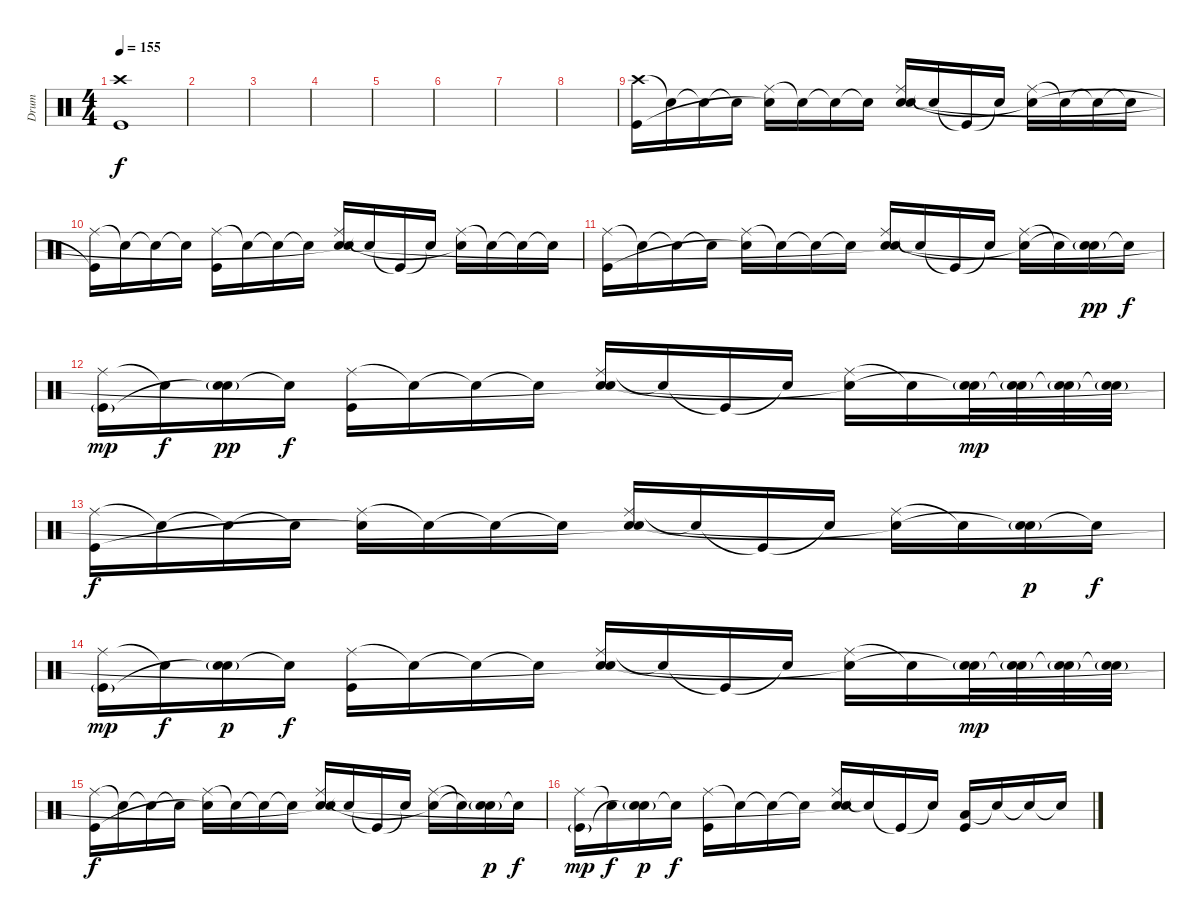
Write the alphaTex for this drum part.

\track ("Drum" "Drum") {instrument percussion}
\staff {score}
\articulation defaults
\ts (4 4)
\tempo 155
\clef neutral
\ks c
("Crash high (hit)" "Kick (hit)").1{dy f} |
|
|
|
|
|
|
|
("Crash high (hit)" "Kick (hit)").16 "Snare (hit)"{t}.16 "Snare (hit)"{t}.16 "Snare (hit)"{t}.16 ("Ride (middle)" "Snare (hit)"{t}).16 "Snare (hit)"{t}.16 "Snare (hit)"{t}.16 "Snare (hit)"{t}.16 ("Ride (middle)" "Electric Snare (hit)" "Snare (hit)").16 "Snare (hit)"{t}.16 "Kick (hit)"{t}.16 "Snare (hit)"{t}.16 ("Ride (middle)" "Snare (hit)"{t}).16 "Snare (hit)"{t}.16 "Snare (hit)"{t}.16 "Snare (hit)"{t}.16 |
("Ride (middle)" "Kick (hit)"{t}).16 "Snare (hit)"{t}.16 "Snare (hit)"{t}.16 "Snare (hit)"{t}.16 ("Ride (middle)" "Kick (hit)").16 "Snare (hit)"{t}.16 "Snare (hit)"{t}.16 "Snare (hit)"{t}.16 ("Ride (middle)" "Electric Snare (hit)" "Snare (hit)"{t}).16 "Snare (hit)"{t}.16 "Kick (hit)"{t}.16 "Snare (hit)"{t}.16 ("Ride (middle)" "Snare (hit)"{t}).16 "Snare (hit)"{t}.16 "Snare (hit)"{t}.16 "Snare (hit)"{t}.16 |
("Ride (middle)" "Kick (hit)").16 "Snare (hit)"{t}.16 "Snare (hit)"{t}.16 "Snare (hit)"{t}.16 ("Ride (middle)" "Snare (hit)"{t}).16 "Snare (hit)"{t}.16 "Snare (hit)"{t}.16 "Snare (hit)"{t}.16 ("Ride (middle)" "Electric Snare (hit)" "Snare (hit)"{t}).16 "Snare (hit)"{t}.16 "Kick (hit)"{t}.16 "Snare (hit)"{t}.16 ("Ride (middle)" "Snare (hit)"{t}).16 "Snare (hit)"{t}.16 ("Electric Snare (hit)"{g} "Snare (hit)"{t}).16{dy pp} "Snare (hit)"{t}.16{dy f} |
("Ride (middle)" "Kick (hit)"{g}).16{dy mp} "Snare (hit)"{t}.16{dy f} ("Electric Snare (hit)"{g} "Snare (hit)"{t}).16{dy pp} "Snare (hit)"{t}.16{dy f} ("Ride (middle)" "Kick (hit)").16 "Snare (hit)"{t}.16 "Snare (hit)"{t}.16 "Snare (hit)"{t}.16 ("Ride (middle)" "Electric Snare (hit)" "Snare (hit)"{t}).16 "Snare (hit)"{t}.16 "Kick (hit)"{t}.16 "Snare (hit)"{t}.16 ("Ride (middle)" "Snare (hit)"{t}).16 "Snare (hit)"{t}.16 ("Electric Snare (hit)"{g} "Snare (hit)"{t}).32{dy mp} ("Electric Snare (hit)"{g} "Snare (hit)"{t}).32 ("Electric Snare (hit)"{g} "Snare (hit)"{t}).32 ("Electric Snare (hit)"{g} "Snare (hit)"{t}).32 |
("Ride (middle)" "Kick (hit)").16{dy f} "Snare (hit)"{t}.16 "Snare (hit)"{t}.16 "Snare (hit)"{t}.16 ("Ride (middle)" "Snare (hit)"{t}).16 "Snare (hit)"{t}.16 "Snare (hit)"{t}.16 "Snare (hit)"{t}.16 ("Ride (middle)" "Electric Snare (hit)" "Snare (hit)"{t}).16 "Snare (hit)"{t}.16 "Kick (hit)"{t}.16 "Snare (hit)"{t}.16 ("Ride (middle)" "Snare (hit)"{t}).16 "Snare (hit)"{t}.16 ("Electric Snare (hit)"{g} "Snare (hit)"{t}).16{dy p} "Snare (hit)"{t}.16{dy f} |
("Ride (middle)" "Kick (hit)"{g}).16{dy mp} "Snare (hit)"{t}.16{dy f} ("Electric Snare (hit)"{g} "Snare (hit)"{t}).16{dy p} "Snare (hit)"{t}.16{dy f} ("Ride (middle)" "Kick (hit)").16 "Snare (hit)"{t}.16 "Snare (hit)"{t}.16 "Snare (hit)"{t}.16 ("Ride (middle)" "Electric Snare (hit)" "Snare (hit)"{t}).16 "Snare (hit)"{t}.16 "Kick (hit)"{t}.16 "Snare (hit)"{t}.16 ("Ride (middle)" "Snare (hit)"{t}).16 "Snare (hit)"{t}.16 ("Electric Snare (hit)"{g} "Snare (hit)"{t}).32{dy mp} ("Electric Snare (hit)"{g} "Snare (hit)"{t}).32 ("Electric Snare (hit)"{g} "Snare (hit)"{t}).32 ("Electric Snare (hit)"{g} "Snare (hit)"{t}).32 |
("Ride (middle)" "Kick (hit)").16{dy f} "Snare (hit)"{t}.16 "Snare (hit)"{t}.16 "Snare (hit)"{t}.16 ("Ride (middle)" "Snare (hit)"{t}).16 "Snare (hit)"{t}.16 "Snare (hit)"{t}.16 "Snare (hit)"{t}.16 ("Ride (middle)" "Electric Snare (hit)" "Snare (hit)"{t}).16 "Snare (hit)"{t}.16 "Kick (hit)"{t}.16 "Snare (hit)"{t}.16 ("Ride (middle)" "Snare (hit)"{t}).16 "Snare (hit)"{t}.16 ("Electric Snare (hit)"{g} "Snare (hit)"{t}).16{dy p} "Snare (hit)"{t}.16{dy f} |
("Ride (middle)" "Kick (hit)"{g}).16{dy mp} "Snare (hit)"{t}.16{dy f} ("Electric Snare (hit)"{g} "Snare (hit)"{t}).16{dy p} "Snare (hit)"{t}.16{dy f} ("Ride (middle)" "Kick (hit)").16 "Snare (hit)"{t}.16 "Snare (hit)"{t}.16 "Snare (hit)"{t}.16 ("Ride (middle)" "Electric Snare (hit)" "Snare (hit)"{t}).16 "Snare (hit)"{t}.16 "Kick (hit)"{t}.16 "Snare (hit)"{t}.16 ("Low Tom (hit)" "Kick (hit)").16 "Snare (hit)"{t}.16 "Snare (hit)"{t}.16 "Snare (hit)"{t}.16
